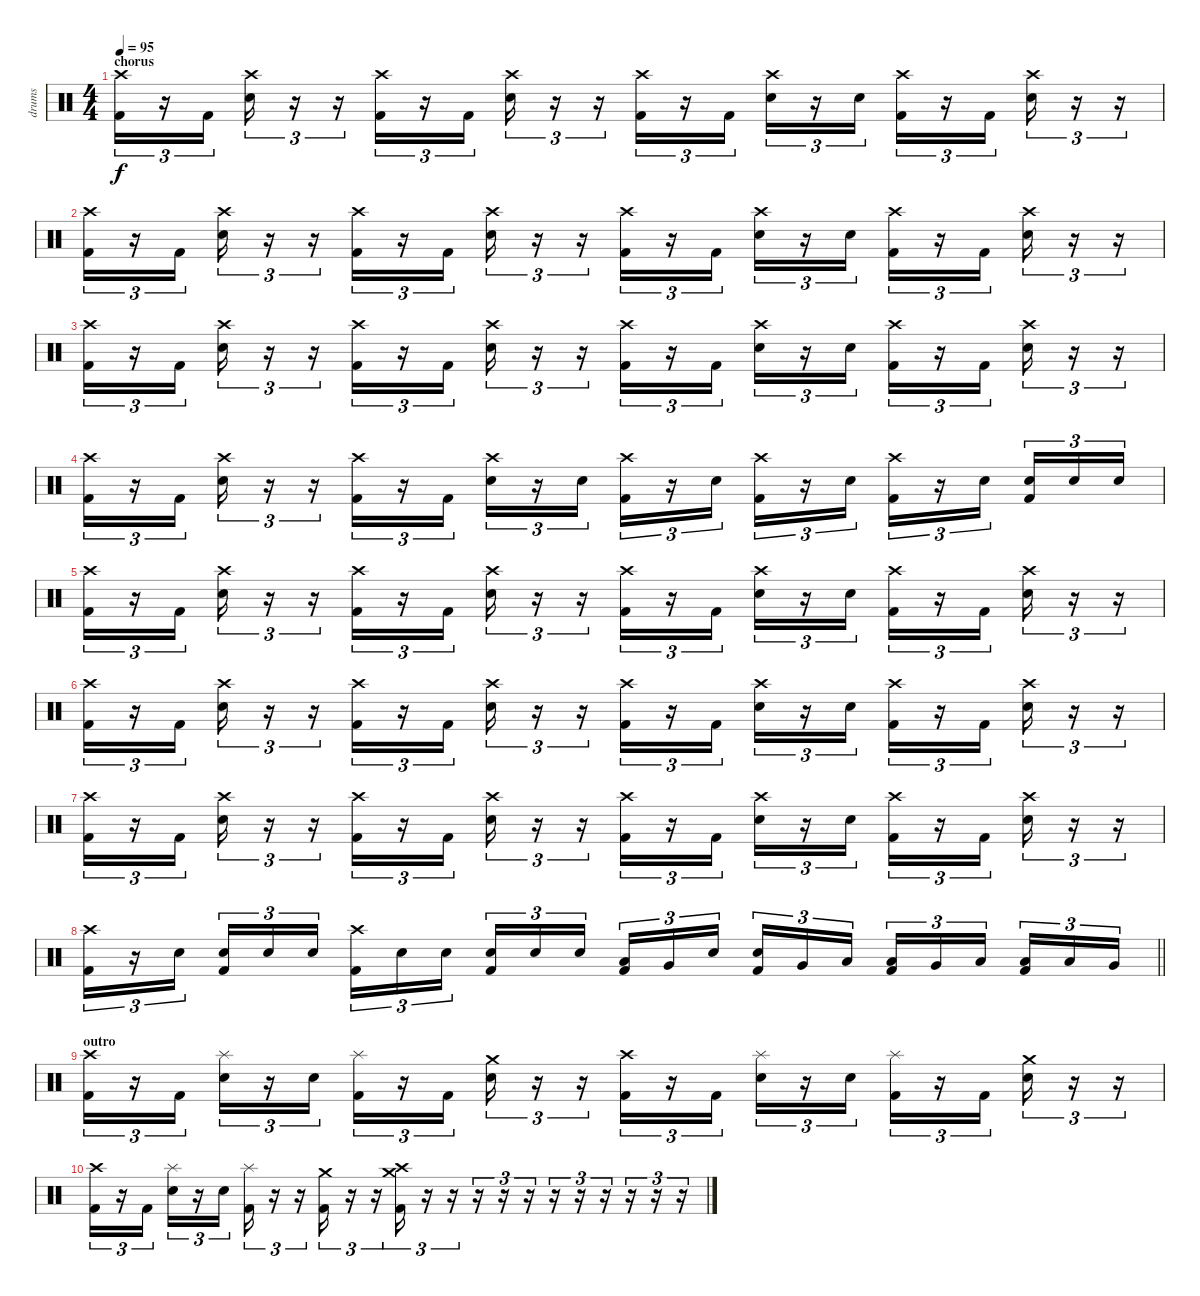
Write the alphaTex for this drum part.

\track ("drums" "drums") {instrument percussion}
\staff {score}
\articulation defaults
\ts (4 4)
\section ("" "chorus")
\tempo 95
\clef neutral
\ks c
("Crash high (hit)" "Kick (hit) 2").16{tu (3 2) dy f} r.16{tu (3 2)} "Kick (hit) 2".16{tu (3 2)} ("Crash high (hit)" "Electric Snare (hit)").16{tu (3 2)} r.16{tu (3 2)} r.16{tu (3 2)} ("Crash high (hit)" "Kick (hit) 2").16{tu (3 2)} r.16{tu (3 2)} "Kick (hit) 2".16{tu (3 2)} ("Crash high (hit)" "Electric Snare (hit)").16{tu (3 2)} r.16{tu (3 2)} r.16{tu (3 2)} ("Crash high (hit)" "Kick (hit) 2").16{tu (3 2)} r.16{tu (3 2)} "Kick (hit) 2".16{tu (3 2)} ("Crash high (hit)" "Electric Snare (hit)").16{tu (3 2)} r.16{tu (3 2)} "Electric Snare (hit)".16{tu (3 2)} ("Crash high (hit)" "Kick (hit) 2").16{tu (3 2)} r.16{tu (3 2)} "Kick (hit) 2".16{tu (3 2)} ("Crash high (hit)" "Electric Snare (hit)").16{tu (3 2)} r.16{tu (3 2)} r.16{tu (3 2)} |
("Crash high (hit)" "Kick (hit) 2").16{tu (3 2)} r.16{tu (3 2)} "Kick (hit) 2".16{tu (3 2)} ("Crash high (hit)" "Electric Snare (hit)").16{tu (3 2)} r.16{tu (3 2)} r.16{tu (3 2)} ("Crash high (hit)" "Kick (hit) 2").16{tu (3 2)} r.16{tu (3 2)} "Kick (hit) 2".16{tu (3 2)} ("Crash high (hit)" "Electric Snare (hit)").16{tu (3 2)} r.16{tu (3 2)} r.16{tu (3 2)} ("Crash high (hit)" "Kick (hit) 2").16{tu (3 2)} r.16{tu (3 2)} "Kick (hit) 2".16{tu (3 2)} ("Crash high (hit)" "Electric Snare (hit)").16{tu (3 2)} r.16{tu (3 2)} "Electric Snare (hit)".16{tu (3 2)} ("Crash high (hit)" "Kick (hit) 2").16{tu (3 2)} r.16{tu (3 2)} "Kick (hit) 2".16{tu (3 2)} ("Crash high (hit)" "Electric Snare (hit)").16{tu (3 2)} r.16{tu (3 2)} r.16{tu (3 2)} |
("Crash high (hit)" "Kick (hit) 2").16{tu (3 2)} r.16{tu (3 2)} "Kick (hit) 2".16{tu (3 2)} ("Crash high (hit)" "Electric Snare (hit)").16{tu (3 2)} r.16{tu (3 2)} r.16{tu (3 2)} ("Crash high (hit)" "Kick (hit) 2").16{tu (3 2)} r.16{tu (3 2)} "Kick (hit) 2".16{tu (3 2)} ("Crash high (hit)" "Electric Snare (hit)").16{tu (3 2)} r.16{tu (3 2)} r.16{tu (3 2)} ("Crash high (hit)" "Kick (hit) 2").16{tu (3 2)} r.16{tu (3 2)} "Kick (hit) 2".16{tu (3 2)} ("Crash high (hit)" "Electric Snare (hit)").16{tu (3 2)} r.16{tu (3 2)} "Electric Snare (hit)".16{tu (3 2)} ("Crash high (hit)" "Kick (hit) 2").16{tu (3 2)} r.16{tu (3 2)} "Kick (hit) 2".16{tu (3 2)} ("Crash high (hit)" "Electric Snare (hit)").16{tu (3 2)} r.16{tu (3 2)} r.16{tu (3 2)} |
("Crash high (hit)" "Kick (hit) 2").16{tu (3 2)} r.16{tu (3 2)} "Kick (hit) 2".16{tu (3 2)} ("Crash high (hit)" "Electric Snare (hit)").16{tu (3 2)} r.16{tu (3 2)} r.16{tu (3 2)} ("Crash high (hit)" "Kick (hit) 2").16{tu (3 2)} r.16{tu (3 2)} "Kick (hit) 2".16{tu (3 2)} ("Crash high (hit)" "Electric Snare (hit)").16{tu (3 2)} r.16{tu (3 2)} "Electric Snare (hit)".16{tu (3 2)} ("Crash high (hit)" "Kick (hit) 2").16{tu (3 2)} r.16{tu (3 2)} "Electric Snare (hit)".16{tu (3 2)} ("Crash high (hit)" "Kick (hit) 2").16{tu (3 2)} r.16{tu (3 2)} "Electric Snare (hit)".16{tu (3 2)} ("Crash high (hit)" "Kick (hit) 2").16{tu (3 2)} r.16{tu (3 2)} "Electric Snare (hit)".16{tu (3 2) beam splitsecondary} ("Electric Snare (hit)" "Kick (hit) 2").16{tu (3 2)} "Electric Snare (hit)".16{tu (3 2)} "Electric Snare (hit)".16{tu (3 2)} |
("Crash high (hit)" "Kick (hit) 2").16{tu (3 2)} r.16{tu (3 2)} "Kick (hit) 2".16{tu (3 2)} ("Crash high (hit)" "Electric Snare (hit)").16{tu (3 2)} r.16{tu (3 2)} r.16{tu (3 2)} ("Crash high (hit)" "Kick (hit) 2").16{tu (3 2)} r.16{tu (3 2)} "Kick (hit) 2".16{tu (3 2)} ("Crash high (hit)" "Electric Snare (hit)").16{tu (3 2)} r.16{tu (3 2)} r.16{tu (3 2)} ("Crash high (hit)" "Kick (hit) 2").16{tu (3 2)} r.16{tu (3 2)} "Kick (hit) 2".16{tu (3 2)} ("Crash high (hit)" "Electric Snare (hit)").16{tu (3 2)} r.16{tu (3 2)} "Electric Snare (hit)".16{tu (3 2)} ("Crash high (hit)" "Kick (hit) 2").16{tu (3 2)} r.16{tu (3 2)} "Kick (hit) 2".16{tu (3 2)} ("Crash high (hit)" "Electric Snare (hit)").16{tu (3 2)} r.16{tu (3 2)} r.16{tu (3 2)} |
("Crash high (hit)" "Kick (hit) 2").16{tu (3 2)} r.16{tu (3 2)} "Kick (hit) 2".16{tu (3 2)} ("Crash high (hit)" "Electric Snare (hit)").16{tu (3 2)} r.16{tu (3 2)} r.16{tu (3 2)} ("Crash high (hit)" "Kick (hit) 2").16{tu (3 2)} r.16{tu (3 2)} "Kick (hit) 2".16{tu (3 2)} ("Crash high (hit)" "Electric Snare (hit)").16{tu (3 2)} r.16{tu (3 2)} r.16{tu (3 2)} ("Crash high (hit)" "Kick (hit) 2").16{tu (3 2)} r.16{tu (3 2)} "Kick (hit) 2".16{tu (3 2)} ("Crash high (hit)" "Electric Snare (hit)").16{tu (3 2)} r.16{tu (3 2)} "Electric Snare (hit)".16{tu (3 2)} ("Crash high (hit)" "Kick (hit) 2").16{tu (3 2)} r.16{tu (3 2)} "Kick (hit) 2".16{tu (3 2)} ("Crash high (hit)" "Electric Snare (hit)").16{tu (3 2)} r.16{tu (3 2)} r.16{tu (3 2)} |
("Crash high (hit)" "Kick (hit) 2").16{tu (3 2)} r.16{tu (3 2)} "Kick (hit) 2".16{tu (3 2)} ("Crash high (hit)" "Electric Snare (hit)").16{tu (3 2)} r.16{tu (3 2)} r.16{tu (3 2)} ("Crash high (hit)" "Kick (hit) 2").16{tu (3 2)} r.16{tu (3 2)} "Kick (hit) 2".16{tu (3 2)} ("Crash high (hit)" "Electric Snare (hit)").16{tu (3 2)} r.16{tu (3 2)} r.16{tu (3 2)} ("Crash high (hit)" "Kick (hit) 2").16{tu (3 2)} r.16{tu (3 2)} "Kick (hit) 2".16{tu (3 2)} ("Crash high (hit)" "Electric Snare (hit)").16{tu (3 2)} r.16{tu (3 2)} "Electric Snare (hit)".16{tu (3 2)} ("Crash high (hit)" "Kick (hit) 2").16{tu (3 2)} r.16{tu (3 2)} "Kick (hit) 2".16{tu (3 2)} ("Crash high (hit)" "Electric Snare (hit)").16{tu (3 2)} r.16{tu (3 2)} r.16{tu (3 2)} |
\barLineRight lightlight
("Crash high (hit)" "Kick (hit) 2").16{tu (3 2)} r.16{tu (3 2)} "Electric Snare (hit)".16{tu (3 2) beam splitsecondary} ("Electric Snare (hit)" "Kick (hit) 2").16{tu (3 2)} "Electric Snare (hit)".16{tu (3 2)} "Electric Snare (hit)".16{tu (3 2)} ("Crash high (hit)" "Kick (hit) 2").16{tu (3 2)} "Electric Snare (hit)".16{tu (3 2)} "Electric Snare (hit)".16{tu (3 2) beam splitsecondary} ("Electric Snare (hit)" "Kick (hit) 2").16{tu (3 2)} "Electric Snare (hit)".16{tu (3 2)} "Electric Snare (hit)".16{tu (3 2)} ("Low Floor Tom (hit)" "Kick (hit) 2").16{tu (3 2)} "Very Low Tom (hit)".16{tu (3 2)} "Electric Snare (hit)".16{tu (3 2) beam splitsecondary} ("Electric Snare (hit)" "Kick (hit) 2").16{tu (3 2)} "Very Low Tom (hit)".16{tu (3 2)} "Low Tom (hit)".16{tu (3 2)} ("Low Floor Tom (hit)" "Kick (hit) 2").16{tu (3 2)} "Very Low Tom (hit)".16{tu (3 2)} "Low Tom (hit)".16{tu (3 2) beam splitsecondary} ("Low Tom (hit)" "Kick (hit) 2").16{tu (3 2)} "Low Floor Tom (hit)".16{tu (3 2)} "Very Low Tom (hit)".16{tu (3 2)} |
\section ("" "outro")
("Crash high (hit)" "Kick (hit) 2").16{tu (3 2)} r.16{tu (3 2)} "Kick (hit) 2".16{tu (3 2)} ("Splash (hit)" "Electric Snare (hit)").16{tu (3 2)} r.16{tu (3 2)} "Electric Snare (hit)".16{tu (3 2)} ("Splash (hit)" "Kick (hit) 2").16{tu (3 2)} r.16{tu (3 2)} "Kick (hit) 2".16{tu (3 2)} ("Crash medium (hit)" "Electric Snare (hit)").16{tu (3 2)} r.16{tu (3 2)} r.16{tu (3 2)} ("Crash high (hit)" "Kick (hit) 2").16{tu (3 2)} r.16{tu (3 2)} "Kick (hit) 2".16{tu (3 2)} ("Splash (hit)" "Electric Snare (hit)").16{tu (3 2)} r.16{tu (3 2)} "Electric Snare (hit)".16{tu (3 2)} ("Splash (hit)" "Kick (hit) 2").16{tu (3 2)} r.16{tu (3 2)} "Kick (hit) 2".16{tu (3 2)} ("Crash medium (hit)" "Electric Snare (hit)").16{tu (3 2)} r.16{tu (3 2)} r.16{tu (3 2)} |
("Crash high (hit)" "Kick (hit) 2").16{tu (3 2)} r.16{tu (3 2)} "Kick (hit) 2".16{tu (3 2)} ("Splash (hit)" "Electric Snare (hit)").16{tu (3 2)} r.16{tu (3 2)} "Electric Snare (hit)".16{tu (3 2)} ("Splash (hit)" "Kick (hit) 2").16{tu (3 2)} r.16{tu (3 2)} r.16{tu (3 2)} ("Crash medium (hit)" "Kick (hit) 2").16{tu (3 2)} r.16{tu (3 2)} r.16{tu (3 2)} ("Crash high (hit)" "Crash medium (hit)" "Kick (hit) 2").16{tu (3 2)} r.16{tu (3 2)} r.16{tu (3 2)} r.16{tu (3 2)} r.16{tu (3 2)} r.16{tu (3 2)} r.16{tu (3 2)} r.16{tu (3 2)} r.16{tu (3 2)} r.16{tu (3 2)} r.16{tu (3 2)} r.16{tu (3 2)}
